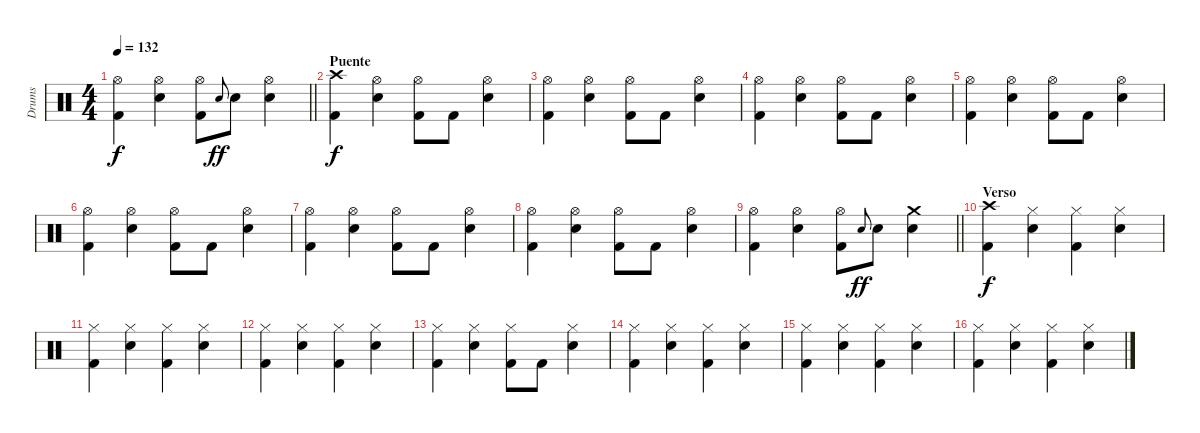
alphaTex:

\track ("Drums" "Drums") {instrument percussion}
\staff {score}
\articulation defaults
\ts (4 4)
\tempo 132
\clef neutral
\barLineRight lightlight
\ks c
("Hi-Hat (open)" "Kick (hit) 2").4{dy f} ("Hi-Hat (open)" "Electric Snare (hit)").4 ("Hi-Hat (open)" "Kick (hit) 2").8 "Electric Snare (hit)".8{gr onbeat dy ff} "Electric Snare (hit)".8 ("Hi-Hat (open)" "Electric Snare (hit)").4 |
\section ("" "Puente")
("Crash high (hit)" "Kick (hit) 2").4{dy f} ("Hi-Hat (open)" "Electric Snare (hit)").4 ("Hi-Hat (open)" "Kick (hit) 2").8 "Kick (hit) 2".8 ("Hi-Hat (open)" "Electric Snare (hit)").4 |
("Hi-Hat (open)" "Kick (hit) 2").4 ("Hi-Hat (open)" "Electric Snare (hit)").4 ("Hi-Hat (open)" "Kick (hit) 2").8 "Kick (hit) 2".8 ("Hi-Hat (open)" "Electric Snare (hit)").4 |
("Hi-Hat (open)" "Kick (hit) 2").4 ("Hi-Hat (open)" "Electric Snare (hit)").4 ("Hi-Hat (open)" "Kick (hit) 2").8 "Kick (hit) 2".8 ("Hi-Hat (open)" "Electric Snare (hit)").4 |
("Hi-Hat (open)" "Kick (hit) 2").4 ("Hi-Hat (open)" "Electric Snare (hit)").4 ("Hi-Hat (open)" "Kick (hit) 2").8 "Kick (hit) 2".8 ("Hi-Hat (open)" "Electric Snare (hit)").4 |
("Hi-Hat (open)" "Kick (hit) 2").4 ("Hi-Hat (open)" "Electric Snare (hit)").4 ("Hi-Hat (open)" "Kick (hit) 2").8 "Kick (hit) 2".8 ("Hi-Hat (open)" "Electric Snare (hit)").4 |
("Hi-Hat (open)" "Kick (hit) 2").4 ("Hi-Hat (open)" "Electric Snare (hit)").4 ("Hi-Hat (open)" "Kick (hit) 2").8 "Kick (hit) 2".8 ("Hi-Hat (open)" "Electric Snare (hit)").4 |
("Hi-Hat (open)" "Kick (hit) 2").4 ("Hi-Hat (open)" "Electric Snare (hit)").4 ("Hi-Hat (open)" "Kick (hit) 2").8 "Kick (hit) 2".8 ("Hi-Hat (open)" "Electric Snare (hit)").4 |
\barLineRight lightlight
("Hi-Hat (open)" "Kick (hit) 2").4 ("Hi-Hat (open)" "Electric Snare (hit)").4 ("Hi-Hat (open)" "Kick (hit) 2").8 "Electric Snare (hit)".8{gr onbeat dy ff} "Electric Snare (hit)".8 ("Crash medium (hit)" "Electric Snare (hit)").4 |
\section ("" "Verso")
("Crash high (hit)" "Kick (hit) 2").4{dy f} ("Hi-Hat (closed)" "Electric Snare (hit)").4 ("Hi-Hat (closed)" "Kick (hit) 2").4 ("Hi-Hat (closed)" "Electric Snare (hit)").4 |
("Hi-Hat (closed)" "Kick (hit) 2").4 ("Hi-Hat (closed)" "Electric Snare (hit)").4 ("Hi-Hat (closed)" "Kick (hit) 2").4 ("Hi-Hat (closed)" "Electric Snare (hit)").4 |
("Hi-Hat (closed)" "Kick (hit) 2").4 ("Hi-Hat (closed)" "Electric Snare (hit)").4 ("Hi-Hat (closed)" "Kick (hit) 2").4 ("Hi-Hat (closed)" "Electric Snare (hit)").4 |
("Hi-Hat (closed)" "Kick (hit) 2").4 ("Hi-Hat (closed)" "Electric Snare (hit)").4 ("Hi-Hat (closed)" "Kick (hit) 2").8 "Kick (hit) 2".8 ("Hi-Hat (closed)" "Electric Snare (hit)").4 |
("Hi-Hat (closed)" "Kick (hit) 2").4 ("Hi-Hat (closed)" "Electric Snare (hit)").4 ("Hi-Hat (closed)" "Kick (hit) 2").4 ("Hi-Hat (closed)" "Electric Snare (hit)").4 |
("Hi-Hat (closed)" "Kick (hit) 2").4 ("Hi-Hat (closed)" "Electric Snare (hit)").4 ("Hi-Hat (closed)" "Kick (hit) 2").4 ("Hi-Hat (closed)" "Electric Snare (hit)").4 |
("Hi-Hat (closed)" "Kick (hit) 2").4 ("Hi-Hat (closed)" "Electric Snare (hit)").4 ("Hi-Hat (closed)" "Kick (hit) 2").4 ("Hi-Hat (closed)" "Electric Snare (hit)").4
